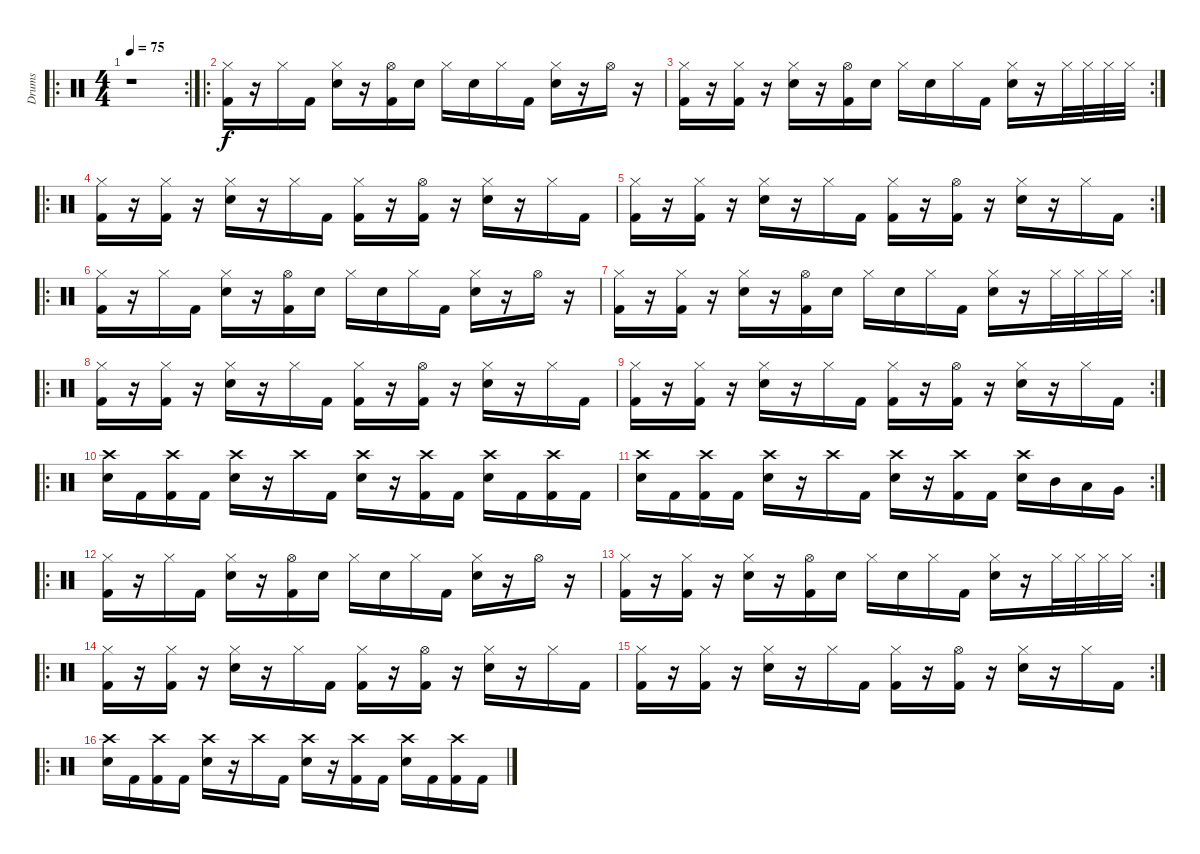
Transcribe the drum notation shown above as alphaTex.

\track ("Drums" "Drums") {instrument percussion}
\staff {score}
\articulation defaults
\ro
\rc 2
\ts (4 4)
\tempo 75
\clef neutral
\ks c
r.1{dy f} |
\ro
("Hi-Hat (closed)" "Kick (hit) 2").16 r.16 "Hi-Hat (closed)".16 "Kick (hit) 2".16 ("Hi-Hat (closed)" "Electric Snare (hit)").16 r.16 ("Hi-Hat (open)" "Kick (hit) 2").16 "Electric Snare (hit)".16 "Hi-Hat (closed)".16 "Electric Snare (hit)".16 "Hi-Hat (closed)".16 "Kick (hit) 2".16 ("Hi-Hat (closed)" "Electric Snare (hit)").16 r.16 "Hi-Hat (open)".16 r.16 |
\rc 2
("Hi-Hat (closed)" "Kick (hit) 2").16 r.16 ("Hi-Hat (closed)" "Kick (hit) 2").16 r.16 ("Hi-Hat (closed)" "Electric Snare (hit)").16 r.16 ("Hi-Hat (open)" "Kick (hit) 2").16 "Electric Snare (hit)".16 "Hi-Hat (closed)".16 "Electric Snare (hit)".16 "Hi-Hat (closed)".16 "Kick (hit) 2".16 ("Hi-Hat (closed)" "Electric Snare (hit)").16 r.16 "Hi-Hat (closed)".32 "Hi-Hat (closed)".32 "Hi-Hat (closed)".32 "Hi-Hat (closed)".32 |
\ro
("Hi-Hat (closed)" "Kick (hit) 2").16 r.16 ("Hi-Hat (closed)" "Kick (hit) 2").16 r.16 ("Hi-Hat (closed)" "Electric Snare (hit)").16 r.16 "Hi-Hat (closed)".16 "Kick (hit) 2".16 ("Hi-Hat (closed)" "Kick (hit) 2").16 r.16 ("Hi-Hat (open)" "Kick (hit) 2").16 r.16 ("Hi-Hat (closed)" "Electric Snare (hit)").16 r.16 "Hi-Hat (closed)".16 "Kick (hit) 2".16 |
\rc 2
("Hi-Hat (closed)" "Kick (hit) 2").16 r.16 ("Hi-Hat (closed)" "Kick (hit) 2").16 r.16 ("Hi-Hat (closed)" "Electric Snare (hit)").16 r.16 "Hi-Hat (closed)".16 "Kick (hit) 2".16 ("Hi-Hat (closed)" "Kick (hit) 2").16 r.16 ("Hi-Hat (open)" "Kick (hit) 2").16 r.16 ("Hi-Hat (closed)" "Electric Snare (hit)").16 r.16 "Hi-Hat (closed)".16 "Kick (hit) 2".16 |
\ro
("Hi-Hat (closed)" "Kick (hit) 2").16 r.16 "Hi-Hat (closed)".16 "Kick (hit) 2".16 ("Hi-Hat (closed)" "Electric Snare (hit)").16 r.16 ("Hi-Hat (open)" "Kick (hit) 2").16 "Electric Snare (hit)".16 "Hi-Hat (closed)".16 "Electric Snare (hit)".16 "Hi-Hat (closed)".16 "Kick (hit) 2".16 ("Hi-Hat (closed)" "Electric Snare (hit)").16 r.16 "Hi-Hat (open)".16 r.16 |
\rc 2
("Hi-Hat (closed)" "Kick (hit) 2").16 r.16 ("Hi-Hat (closed)" "Kick (hit) 2").16 r.16 ("Hi-Hat (closed)" "Electric Snare (hit)").16 r.16 ("Hi-Hat (open)" "Kick (hit) 2").16 "Electric Snare (hit)".16 "Hi-Hat (closed)".16 "Electric Snare (hit)".16 "Hi-Hat (closed)".16 "Kick (hit) 2".16 ("Hi-Hat (closed)" "Electric Snare (hit)").16 r.16 "Hi-Hat (closed)".32 "Hi-Hat (closed)".32 "Hi-Hat (closed)".32 "Hi-Hat (closed)".32 |
\ro
("Hi-Hat (closed)" "Kick (hit) 2").16 r.16 ("Hi-Hat (closed)" "Kick (hit) 2").16 r.16 ("Hi-Hat (closed)" "Electric Snare (hit)").16 r.16 "Hi-Hat (closed)".16 "Kick (hit) 2".16 ("Hi-Hat (closed)" "Kick (hit) 2").16 r.16 ("Hi-Hat (open)" "Kick (hit) 2").16 r.16 ("Hi-Hat (closed)" "Electric Snare (hit)").16 r.16 "Hi-Hat (closed)".16 "Kick (hit) 2".16 |
\rc 2
("Hi-Hat (closed)" "Kick (hit) 2").16 r.16 ("Hi-Hat (closed)" "Kick (hit) 2").16 r.16 ("Hi-Hat (closed)" "Electric Snare (hit)").16 r.16 "Hi-Hat (closed)".16 "Kick (hit) 2".16 ("Hi-Hat (closed)" "Kick (hit) 2").16 r.16 ("Hi-Hat (open)" "Kick (hit) 2").16 r.16 ("Hi-Hat (closed)" "Electric Snare (hit)").16 r.16 "Hi-Hat (closed)".16 "Kick (hit) 2".16 |
\ro
("Crash high (hit)" "Electric Snare (hit)").16 "Kick (hit) 2".16 ("Crash high (hit)" "Kick (hit) 2").16 "Kick (hit) 2".16 ("Crash high (hit)" "Electric Snare (hit)").16 r.16 "Crash high (hit)".16 "Kick (hit) 2".16 ("Crash high (hit)" "Electric Snare (hit)").16 r.16 ("Crash high (hit)" "Kick (hit) 2").16 "Kick (hit) 2".16 ("Crash high (hit)" "Electric Snare (hit)").16 "Kick (hit) 2".16 ("Crash high (hit)" "Kick (hit) 2").16 "Kick (hit) 2".16 |
\rc 2
("Crash high (hit)" "Electric Snare (hit)").16 "Kick (hit) 2".16 ("Crash high (hit)" "Kick (hit) 2").16 "Kick (hit) 2".16 ("Crash high (hit)" "Electric Snare (hit)").16 r.16 "Crash high (hit)".16 "Kick (hit) 2".16 ("Crash high (hit)" "Electric Snare (hit)").16 r.16 ("Crash high (hit)" "Kick (hit) 2").16 "Kick (hit) 2".16 ("Crash high (hit)" "Electric Snare (hit)").16 "Mid Tom (hit)".16 "Low Tom (hit)".16 "Very Low Tom (hit)".16 |
\ro
("Hi-Hat (closed)" "Kick (hit) 2").16 r.16 "Hi-Hat (closed)".16 "Kick (hit) 2".16 ("Hi-Hat (closed)" "Electric Snare (hit)").16 r.16 ("Hi-Hat (open)" "Kick (hit) 2").16 "Electric Snare (hit)".16 "Hi-Hat (closed)".16 "Electric Snare (hit)".16 "Hi-Hat (closed)".16 "Kick (hit) 2".16 ("Hi-Hat (closed)" "Electric Snare (hit)").16 r.16 "Hi-Hat (open)".16 r.16 |
\rc 2
("Hi-Hat (closed)" "Kick (hit) 2").16 r.16 ("Hi-Hat (closed)" "Kick (hit) 2").16 r.16 ("Hi-Hat (closed)" "Electric Snare (hit)").16 r.16 ("Hi-Hat (open)" "Kick (hit) 2").16 "Electric Snare (hit)".16 "Hi-Hat (closed)".16 "Electric Snare (hit)".16 "Hi-Hat (closed)".16 "Kick (hit) 2".16 ("Hi-Hat (closed)" "Electric Snare (hit)").16 r.16 "Hi-Hat (closed)".32 "Hi-Hat (closed)".32 "Hi-Hat (closed)".32 "Hi-Hat (closed)".32 |
\ro
("Hi-Hat (closed)" "Kick (hit) 2").16 r.16 ("Hi-Hat (closed)" "Kick (hit) 2").16 r.16 ("Hi-Hat (closed)" "Electric Snare (hit)").16 r.16 "Hi-Hat (closed)".16 "Kick (hit) 2".16 ("Hi-Hat (closed)" "Kick (hit) 2").16 r.16 ("Hi-Hat (open)" "Kick (hit) 2").16 r.16 ("Hi-Hat (closed)" "Electric Snare (hit)").16 r.16 "Hi-Hat (closed)".16 "Kick (hit) 2".16 |
\rc 2
("Hi-Hat (closed)" "Kick (hit) 2").16 r.16 ("Hi-Hat (closed)" "Kick (hit) 2").16 r.16 ("Hi-Hat (closed)" "Electric Snare (hit)").16 r.16 "Hi-Hat (closed)".16 "Kick (hit) 2".16 ("Hi-Hat (closed)" "Kick (hit) 2").16 r.16 ("Hi-Hat (open)" "Kick (hit) 2").16 r.16 ("Hi-Hat (closed)" "Electric Snare (hit)").16 r.16 "Hi-Hat (closed)".16 "Kick (hit) 2".16 |
\ro
("Crash high (hit)" "Electric Snare (hit)").16 "Kick (hit) 2".16 ("Crash high (hit)" "Kick (hit) 2").16 "Kick (hit) 2".16 ("Crash high (hit)" "Electric Snare (hit)").16 r.16 "Crash high (hit)".16 "Kick (hit) 2".16 ("Crash high (hit)" "Electric Snare (hit)").16 r.16 ("Crash high (hit)" "Kick (hit) 2").16 "Kick (hit) 2".16 ("Crash high (hit)" "Electric Snare (hit)").16 "Kick (hit) 2".16 ("Crash high (hit)" "Kick (hit) 2").16 "Kick (hit) 2".16
